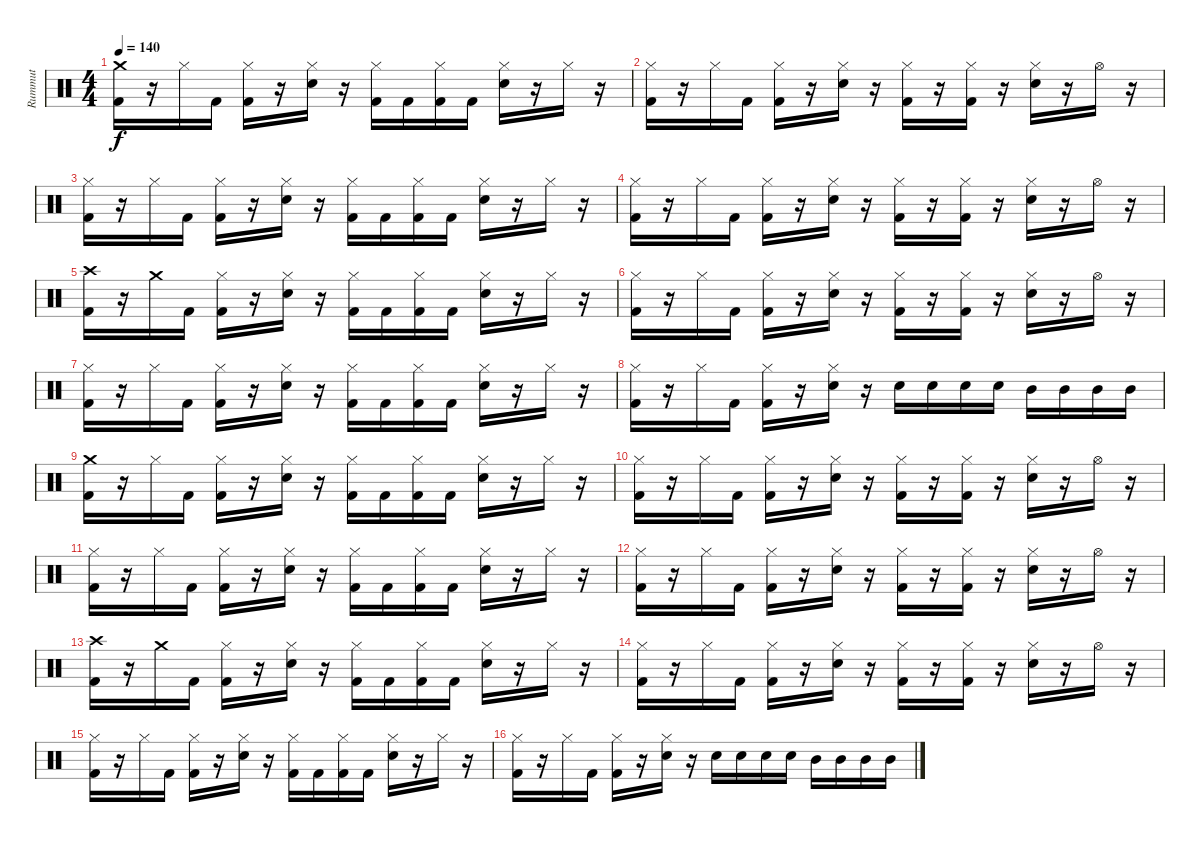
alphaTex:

\track ("Rummut" "Rummut") {instrument percussion}
\staff {score}
\articulation defaults
\ts (4 4)
\tempo 140
\clef neutral
\ks c
("Crash medium (hit)" "Kick (hit) 2").16{dy f} r.16 "Hi-Hat (closed)".16 "Kick (hit) 2".16 ("Hi-Hat (closed)" "Kick (hit) 2").16 r.16 ("Hi-Hat (closed)" "Snare (hit) 2").16 r.16 ("Hi-Hat (closed)" "Kick (hit) 2").16 "Kick (hit) 2".16 ("Hi-Hat (closed)" "Kick (hit) 2").16 "Kick (hit) 2".16 ("Hi-Hat (closed)" "Snare (hit) 2").16 r.16 "Hi-Hat (closed)".16 r.16 |
("Hi-Hat (closed)" "Kick (hit) 2").16 r.16 "Hi-Hat (closed)".16 "Kick (hit) 2".16 ("Hi-Hat (closed)" "Kick (hit) 2").16 r.16 ("Hi-Hat (closed)" "Snare (hit) 2").16 r.16 ("Hi-Hat (closed)" "Kick (hit) 2").16 r.16 ("Hi-Hat (closed)" "Kick (hit) 2").16 r.16 ("Hi-Hat (closed)" "Snare (hit) 2").16 r.16 "Hi-Hat (open)".16 r.16 |
("Hi-Hat (closed)" "Kick (hit) 2").16 r.16 "Hi-Hat (closed)".16 "Kick (hit) 2".16 ("Hi-Hat (closed)" "Kick (hit) 2").16 r.16 ("Hi-Hat (closed)" "Snare (hit) 2").16 r.16 ("Hi-Hat (closed)" "Kick (hit) 2").16 "Kick (hit) 2".16 ("Hi-Hat (closed)" "Kick (hit) 2").16 "Kick (hit) 2".16 ("Hi-Hat (closed)" "Snare (hit) 2").16 r.16 "Hi-Hat (closed)".16 r.16 |
("Hi-Hat (closed)" "Kick (hit) 2").16 r.16 "Hi-Hat (closed)".16 "Kick (hit) 2".16 ("Hi-Hat (closed)" "Kick (hit) 2").16 r.16 ("Hi-Hat (closed)" "Snare (hit) 2").16 r.16 ("Hi-Hat (closed)" "Kick (hit) 2").16 r.16 ("Hi-Hat (closed)" "Kick (hit) 2").16 r.16 ("Hi-Hat (closed)" "Snare (hit) 2").16 r.16 "Hi-Hat (open)".16 r.16 |
("Crash high (hit)" "Kick (hit) 2").16 r.16 "Crash medium (hit)".16 "Kick (hit) 2".16 ("Hi-Hat (closed)" "Kick (hit) 2").16 r.16 ("Hi-Hat (closed)" "Snare (hit) 2").16 r.16 ("Hi-Hat (closed)" "Kick (hit) 2").16 "Kick (hit) 2".16 ("Hi-Hat (closed)" "Kick (hit) 2").16 "Kick (hit) 2".16 ("Hi-Hat (closed)" "Snare (hit) 2").16 r.16 "Hi-Hat (closed)".16 r.16 |
("Hi-Hat (closed)" "Kick (hit) 2").16 r.16 "Hi-Hat (closed)".16 "Kick (hit) 2".16 ("Hi-Hat (closed)" "Kick (hit) 2").16 r.16 ("Hi-Hat (closed)" "Snare (hit) 2").16 r.16 ("Hi-Hat (closed)" "Kick (hit) 2").16 r.16 ("Hi-Hat (closed)" "Kick (hit) 2").16 r.16 ("Hi-Hat (closed)" "Snare (hit) 2").16 r.16 "Hi-Hat (open)".16 r.16 |
("Hi-Hat (closed)" "Kick (hit) 2").16 r.16 "Hi-Hat (closed)".16 "Kick (hit) 2".16 ("Hi-Hat (closed)" "Kick (hit) 2").16 r.16 ("Hi-Hat (closed)" "Snare (hit) 2").16 r.16 ("Hi-Hat (closed)" "Kick (hit) 2").16 "Kick (hit) 2".16 ("Hi-Hat (closed)" "Kick (hit) 2").16 "Kick (hit) 2".16 ("Hi-Hat (closed)" "Snare (hit) 2").16 r.16 "Hi-Hat (closed)".16 r.16 |
("Hi-Hat (closed)" "Kick (hit) 2").16 r.16 "Hi-Hat (closed)".16 "Kick (hit) 2".16 ("Hi-Hat (closed)" "Kick (hit) 2").16 r.16 ("Hi-Hat (closed)" "Snare (hit) 2").16 r.16 "Snare (hit) 2".16 "Snare (hit) 2".16 "Snare (hit) 2".16 "Snare (hit) 2".16 "Mid Tom (hit)".16 "Mid Tom (hit)".16 "Mid Tom (hit)".16 "Mid Tom (hit)".16 |
("Crash medium (hit)" "Kick (hit) 2").16 r.16 "Hi-Hat (closed)".16 "Kick (hit) 2".16 ("Hi-Hat (closed)" "Kick (hit) 2").16 r.16 ("Hi-Hat (closed)" "Snare (hit) 2").16 r.16 ("Hi-Hat (closed)" "Kick (hit) 2").16 "Kick (hit) 2".16 ("Hi-Hat (closed)" "Kick (hit) 2").16 "Kick (hit) 2".16 ("Hi-Hat (closed)" "Snare (hit) 2").16 r.16 "Hi-Hat (closed)".16 r.16 |
("Hi-Hat (closed)" "Kick (hit) 2").16 r.16 "Hi-Hat (closed)".16 "Kick (hit) 2".16 ("Hi-Hat (closed)" "Kick (hit) 2").16 r.16 ("Hi-Hat (closed)" "Snare (hit) 2").16 r.16 ("Hi-Hat (closed)" "Kick (hit) 2").16 r.16 ("Hi-Hat (closed)" "Kick (hit) 2").16 r.16 ("Hi-Hat (closed)" "Snare (hit) 2").16 r.16 "Hi-Hat (open)".16 r.16 |
("Hi-Hat (closed)" "Kick (hit) 2").16 r.16 "Hi-Hat (closed)".16 "Kick (hit) 2".16 ("Hi-Hat (closed)" "Kick (hit) 2").16 r.16 ("Hi-Hat (closed)" "Snare (hit) 2").16 r.16 ("Hi-Hat (closed)" "Kick (hit) 2").16 "Kick (hit) 2".16 ("Hi-Hat (closed)" "Kick (hit) 2").16 "Kick (hit) 2".16 ("Hi-Hat (closed)" "Snare (hit) 2").16 r.16 "Hi-Hat (closed)".16 r.16 |
("Hi-Hat (closed)" "Kick (hit) 2").16 r.16 "Hi-Hat (closed)".16 "Kick (hit) 2".16 ("Hi-Hat (closed)" "Kick (hit) 2").16 r.16 ("Hi-Hat (closed)" "Snare (hit) 2").16 r.16 ("Hi-Hat (closed)" "Kick (hit) 2").16 r.16 ("Hi-Hat (closed)" "Kick (hit) 2").16 r.16 ("Hi-Hat (closed)" "Snare (hit) 2").16 r.16 "Hi-Hat (open)".16 r.16 |
("Crash high (hit)" "Kick (hit) 2").16 r.16 "Crash medium (hit)".16 "Kick (hit) 2".16 ("Hi-Hat (closed)" "Kick (hit) 2").16 r.16 ("Hi-Hat (closed)" "Snare (hit) 2").16 r.16 ("Hi-Hat (closed)" "Kick (hit) 2").16 "Kick (hit) 2".16 ("Hi-Hat (closed)" "Kick (hit) 2").16 "Kick (hit) 2".16 ("Hi-Hat (closed)" "Snare (hit) 2").16 r.16 "Hi-Hat (closed)".16 r.16 |
("Hi-Hat (closed)" "Kick (hit) 2").16 r.16 "Hi-Hat (closed)".16 "Kick (hit) 2".16 ("Hi-Hat (closed)" "Kick (hit) 2").16 r.16 ("Hi-Hat (closed)" "Snare (hit) 2").16 r.16 ("Hi-Hat (closed)" "Kick (hit) 2").16 r.16 ("Hi-Hat (closed)" "Kick (hit) 2").16 r.16 ("Hi-Hat (closed)" "Snare (hit) 2").16 r.16 "Hi-Hat (open)".16 r.16 |
("Hi-Hat (closed)" "Kick (hit) 2").16 r.16 "Hi-Hat (closed)".16 "Kick (hit) 2".16 ("Hi-Hat (closed)" "Kick (hit) 2").16 r.16 ("Hi-Hat (closed)" "Snare (hit) 2").16 r.16 ("Hi-Hat (closed)" "Kick (hit) 2").16 "Kick (hit) 2".16 ("Hi-Hat (closed)" "Kick (hit) 2").16 "Kick (hit) 2".16 ("Hi-Hat (closed)" "Snare (hit) 2").16 r.16 "Hi-Hat (closed)".16 r.16 |
("Hi-Hat (closed)" "Kick (hit) 2").16 r.16 "Hi-Hat (closed)".16 "Kick (hit) 2".16 ("Hi-Hat (closed)" "Kick (hit) 2").16 r.16 ("Hi-Hat (closed)" "Snare (hit) 2").16 r.16 "Snare (hit) 2".16 "Snare (hit) 2".16 "Snare (hit) 2".16 "Snare (hit) 2".16 "Mid Tom (hit)".16 "Mid Tom (hit)".16 "Mid Tom (hit)".16 "Mid Tom (hit)".16
